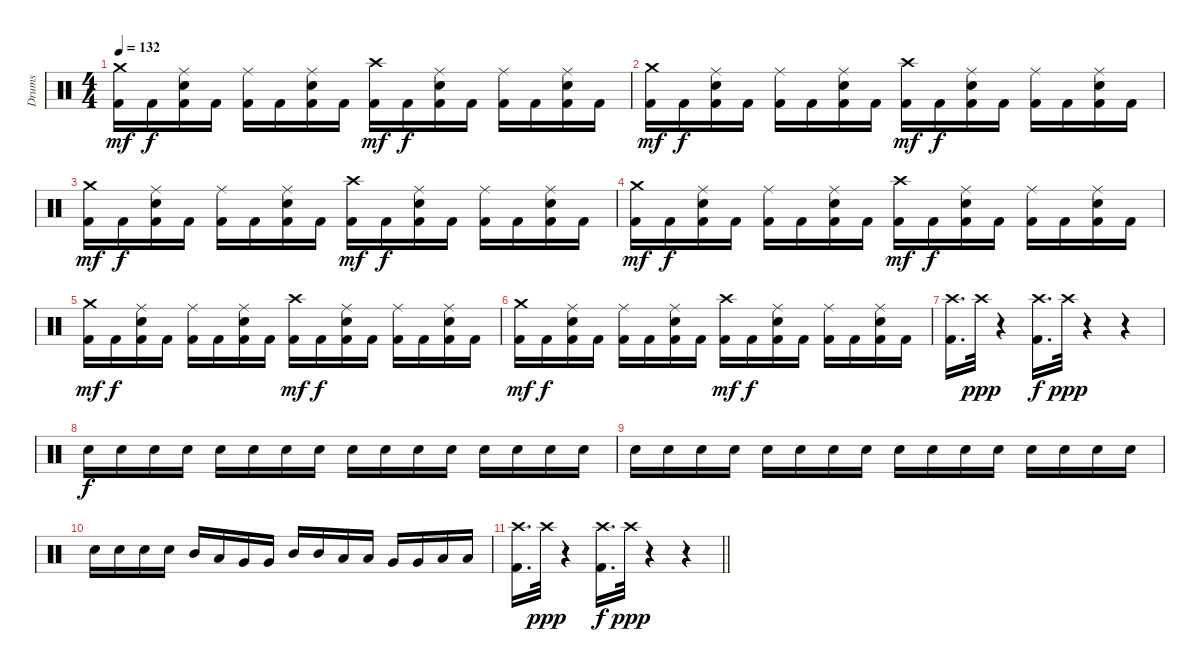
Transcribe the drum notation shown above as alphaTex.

\track ("Drums" "Drums") {instrument percussion}
\staff {score}
\articulation defaults
\ts (4 4)
\tempo 132
\clef neutral
\ks c
("Crash medium (hit)" "Kick (hit) 2").16{dy mf} "Kick (hit) 2".16{dy f} ("Ride (middle)" "Snare (hit) 2" "Kick (hit) 2").16 "Kick (hit) 2".16 ("Ride (middle)" "Kick (hit) 2").16 "Kick (hit) 2".16 ("Ride (middle)" "Snare (hit) 2" "Kick (hit) 2").16 "Kick (hit) 2".16 ("Crash high (hit)" "Kick (hit) 2").16{dy mf} "Kick (hit) 2".16{dy f} ("Ride (middle)" "Snare (hit) 2" "Kick (hit) 2").16 "Kick (hit) 2".16 ("Ride (middle)" "Kick (hit) 2").16 "Kick (hit) 2".16 ("Ride (middle)" "Snare (hit) 2" "Kick (hit) 2").16 "Kick (hit) 2".16 |
("Crash medium (hit)" "Kick (hit) 2").16{dy mf} "Kick (hit) 2".16{dy f} ("Ride (middle)" "Snare (hit) 2" "Kick (hit) 2").16 "Kick (hit) 2".16 ("Ride (middle)" "Kick (hit) 2").16 "Kick (hit) 2".16 ("Ride (middle)" "Snare (hit) 2" "Kick (hit) 2").16 "Kick (hit) 2".16 ("Crash high (hit)" "Kick (hit) 2").16{dy mf} "Kick (hit) 2".16{dy f} ("Ride (middle)" "Snare (hit) 2" "Kick (hit) 2").16 "Kick (hit) 2".16 ("Ride (middle)" "Kick (hit) 2").16 "Kick (hit) 2".16 ("Ride (middle)" "Snare (hit) 2" "Kick (hit) 2").16 "Kick (hit) 2".16 |
("Crash medium (hit)" "Kick (hit) 2").16{dy mf} "Kick (hit) 2".16{dy f} ("Ride (middle)" "Snare (hit) 2" "Kick (hit) 2").16 "Kick (hit) 2".16 ("Ride (middle)" "Kick (hit) 2").16 "Kick (hit) 2".16 ("Ride (middle)" "Snare (hit) 2" "Kick (hit) 2").16 "Kick (hit) 2".16 ("Crash high (hit)" "Kick (hit) 2").16{dy mf} "Kick (hit) 2".16{dy f} ("Ride (middle)" "Snare (hit) 2" "Kick (hit) 2").16 "Kick (hit) 2".16 ("Ride (middle)" "Kick (hit) 2").16 "Kick (hit) 2".16 ("Ride (middle)" "Snare (hit) 2" "Kick (hit) 2").16 "Kick (hit) 2".16 |
("Crash medium (hit)" "Kick (hit) 2").16{dy mf} "Kick (hit) 2".16{dy f} ("Ride (middle)" "Snare (hit) 2" "Kick (hit) 2").16 "Kick (hit) 2".16 ("Ride (middle)" "Kick (hit) 2").16 "Kick (hit) 2".16 ("Ride (middle)" "Snare (hit) 2" "Kick (hit) 2").16 "Kick (hit) 2".16 ("Crash high (hit)" "Kick (hit) 2").16{dy mf} "Kick (hit) 2".16{dy f} ("Ride (middle)" "Snare (hit) 2" "Kick (hit) 2").16 "Kick (hit) 2".16 ("Ride (middle)" "Kick (hit) 2").16 "Kick (hit) 2".16 ("Ride (middle)" "Snare (hit) 2" "Kick (hit) 2").16 "Kick (hit) 2".16 |
("Crash medium (hit)" "Kick (hit) 2").16{dy mf} "Kick (hit) 2".16{dy f} ("Ride (middle)" "Snare (hit) 2" "Kick (hit) 2").16 "Kick (hit) 2".16 ("Ride (middle)" "Kick (hit) 2").16 "Kick (hit) 2".16 ("Ride (middle)" "Snare (hit) 2" "Kick (hit) 2").16 "Kick (hit) 2".16 ("Crash high (hit)" "Kick (hit) 2").16{dy mf} "Kick (hit) 2".16{dy f} ("Ride (middle)" "Snare (hit) 2" "Kick (hit) 2").16 "Kick (hit) 2".16 ("Ride (middle)" "Kick (hit) 2").16 "Kick (hit) 2".16 ("Ride (middle)" "Snare (hit) 2" "Kick (hit) 2").16 "Kick (hit) 2".16 |
("Crash medium (hit)" "Kick (hit) 2").16{dy mf} "Kick (hit) 2".16{dy f} ("Ride (middle)" "Snare (hit) 2" "Kick (hit) 2").16 "Kick (hit) 2".16 ("Ride (middle)" "Kick (hit) 2").16 "Kick (hit) 2".16 ("Ride (middle)" "Snare (hit) 2" "Kick (hit) 2").16 "Kick (hit) 2".16 ("Crash high (hit)" "Kick (hit) 2").16{dy mf} "Kick (hit) 2".16{dy f} ("Ride (middle)" "Snare (hit) 2" "Kick (hit) 2").16 "Kick (hit) 2".16 ("Ride (middle)" "Kick (hit) 2").16 "Kick (hit) 2".16 ("Ride (middle)" "Snare (hit) 2" "Kick (hit) 2").16 "Kick (hit) 2".16 |
("Crash high (hit)" "Kick (hit) 2").16{d} "Crash high (hit)".32{dy ppp} r.4 ("Crash high (hit)" "Kick (hit) 2").16{d dy f} "Crash high (hit)".32{dy ppp} r.4 r.4 |
"Snare (hit) 2".16{dy f} "Snare (hit) 2".16 "Snare (hit) 2".16 "Snare (hit) 2".16 "Snare (hit) 2".16 "Snare (hit) 2".16 "Snare (hit) 2".16 "Snare (hit) 2".16 "Snare (hit) 2".16 "Snare (hit) 2".16 "Snare (hit) 2".16 "Snare (hit) 2".16 "Snare (hit) 2".16 "Snare (hit) 2".16 "Snare (hit) 2".16 "Snare (hit) 2".16 |
"Snare (hit) 2".16 "Snare (hit) 2".16 "Snare (hit) 2".16 "Snare (hit) 2".16 "Snare (hit) 2".16 "Snare (hit) 2".16 "Snare (hit) 2".16 "Snare (hit) 2".16 "Snare (hit) 2".16 "Snare (hit) 2".16 "Snare (hit) 2".16 "Snare (hit) 2".16 "Snare (hit) 2".16 "Snare (hit) 2".16 "Snare (hit) 2".16 "Snare (hit) 2".16 |
"Snare (hit) 2".16 "Snare (hit) 2".16 "Snare (hit) 2".16 "Snare (hit) 2".16 "Mid Tom (hit)".16 "Low Tom (hit)".16 "Very Low Tom (hit)".16 "Very Low Tom (hit)".16 "Mid Tom (hit)".16 "Mid Tom (hit)".16 "Low Tom (hit)".16 "Low Tom (hit)".16 "Very Low Tom (hit)".16 "Very Low Tom (hit)".16 "Low Floor Tom (hit)".16 "Low Floor Tom (hit)".16 |
\barLineRight lightlight
("Crash high (hit)" "Kick (hit) 2").16{d} "Crash high (hit)".32{dy ppp} r.4 ("Crash high (hit)" "Kick (hit) 2").16{d dy f} "Crash high (hit)".32{dy ppp} r.4 r.4
